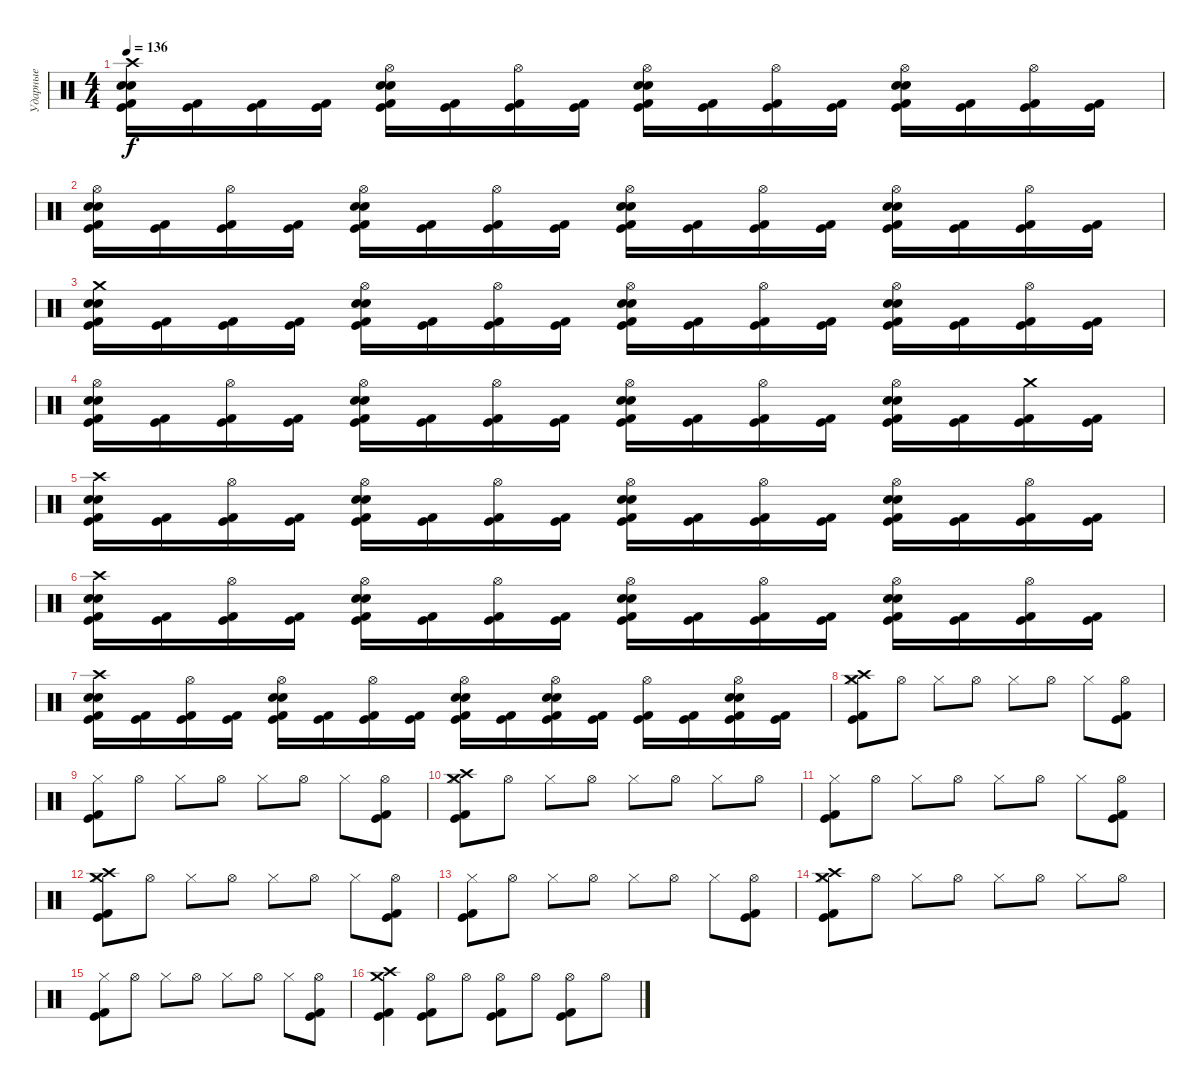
\track ("Ударные" "Ударные") {instrument percussion}
\staff {score}
\articulation defaults
\ts (4 4)
\tempo 136
\clef neutral
\ks c
("Crash high (hit)" "Kick (hit)" "Kick (hit) 2" "Snare (hit) 2" "Electric Snare (hit)").16{dy f} ("Kick (hit)" "Kick (hit) 2").16 ("Kick (hit)" "Kick (hit) 2").16 ("Kick (hit)" "Kick (hit) 2").16 ("Hi-Hat (open)" "Kick (hit)" "Kick (hit) 2" "Snare (hit) 2" "Electric Snare (hit)").16 ("Kick (hit)" "Kick (hit) 2").16 ("Hi-Hat (open)" "Kick (hit)" "Kick (hit) 2").16 ("Kick (hit)" "Kick (hit) 2").16 ("Hi-Hat (open)" "Kick (hit)" "Kick (hit) 2" "Snare (hit) 2" "Electric Snare (hit)").16 ("Kick (hit)" "Kick (hit) 2").16 ("Hi-Hat (open)" "Kick (hit)" "Kick (hit) 2").16 ("Kick (hit)" "Kick (hit) 2").16 ("Hi-Hat (open)" "Kick (hit)" "Kick (hit) 2" "Snare (hit) 2" "Electric Snare (hit)").16 ("Kick (hit)" "Kick (hit) 2").16 ("Hi-Hat (open)" "Kick (hit)" "Kick (hit) 2").16 ("Kick (hit)" "Kick (hit) 2").16 |
("Hi-Hat (open)" "Kick (hit)" "Kick (hit) 2" "Snare (hit) 2" "Electric Snare (hit)").16 ("Kick (hit)" "Kick (hit) 2").16 ("Hi-Hat (open)" "Kick (hit)" "Kick (hit) 2").16 ("Kick (hit)" "Kick (hit) 2").16 ("Hi-Hat (open)" "Kick (hit)" "Kick (hit) 2" "Snare (hit) 2" "Electric Snare (hit)").16 ("Kick (hit)" "Kick (hit) 2").16 ("Hi-Hat (open)" "Kick (hit)" "Kick (hit) 2").16 ("Kick (hit)" "Kick (hit) 2").16 ("Hi-Hat (open)" "Kick (hit)" "Kick (hit) 2" "Snare (hit) 2" "Electric Snare (hit)").16 ("Kick (hit)" "Kick (hit) 2").16 ("Hi-Hat (open)" "Kick (hit)" "Kick (hit) 2").16 ("Kick (hit)" "Kick (hit) 2").16 ("Hi-Hat (open)" "Kick (hit)" "Kick (hit) 2" "Snare (hit) 2" "Electric Snare (hit)").16 ("Kick (hit)" "Kick (hit) 2").16 ("Hi-Hat (open)" "Kick (hit)" "Kick (hit) 2").16 ("Kick (hit)" "Kick (hit) 2").16 |
("Crash medium (hit)" "Kick (hit)" "Kick (hit) 2" "Snare (hit) 2" "Electric Snare (hit)").16 ("Kick (hit)" "Kick (hit) 2").16 ("Kick (hit)" "Kick (hit) 2").16 ("Kick (hit)" "Kick (hit) 2").16 ("Hi-Hat (open)" "Kick (hit)" "Kick (hit) 2" "Snare (hit) 2" "Electric Snare (hit)").16 ("Kick (hit)" "Kick (hit) 2").16 ("Hi-Hat (open)" "Kick (hit)" "Kick (hit) 2").16 ("Kick (hit)" "Kick (hit) 2").16 ("Hi-Hat (open)" "Kick (hit)" "Kick (hit) 2" "Snare (hit) 2" "Electric Snare (hit)").16 ("Kick (hit)" "Kick (hit) 2").16 ("Hi-Hat (open)" "Kick (hit)" "Kick (hit) 2").16 ("Kick (hit)" "Kick (hit) 2").16 ("Hi-Hat (open)" "Kick (hit)" "Kick (hit) 2" "Snare (hit) 2" "Electric Snare (hit)").16 ("Kick (hit)" "Kick (hit) 2").16 ("Hi-Hat (open)" "Kick (hit)" "Kick (hit) 2").16 ("Kick (hit)" "Kick (hit) 2").16 |
("Hi-Hat (open)" "Kick (hit)" "Kick (hit) 2" "Snare (hit) 2" "Electric Snare (hit)").16 ("Kick (hit)" "Kick (hit) 2").16 ("Hi-Hat (open)" "Kick (hit)" "Kick (hit) 2").16 ("Kick (hit)" "Kick (hit) 2").16 ("Hi-Hat (open)" "Kick (hit)" "Kick (hit) 2" "Snare (hit) 2" "Electric Snare (hit)").16 ("Kick (hit)" "Kick (hit) 2").16 ("Hi-Hat (open)" "Kick (hit)" "Kick (hit) 2").16 ("Kick (hit)" "Kick (hit) 2").16 ("Hi-Hat (open)" "Kick (hit)" "Kick (hit) 2" "Snare (hit) 2" "Electric Snare (hit)").16 ("Kick (hit)" "Kick (hit) 2").16 ("Hi-Hat (open)" "Kick (hit)" "Kick (hit) 2").16 ("Kick (hit)" "Kick (hit) 2").16 ("Hi-Hat (open)" "Kick (hit)" "Kick (hit) 2" "Snare (hit) 2" "Electric Snare (hit)").16 ("Kick (hit)" "Kick (hit) 2").16 ("Crash medium (hit)" "Kick (hit)" "Kick (hit) 2").16 ("Kick (hit)" "Kick (hit) 2").16 |
("Crash high (hit)" "Kick (hit)" "Kick (hit) 2" "Snare (hit) 2" "Electric Snare (hit)").16 ("Kick (hit)" "Kick (hit) 2").16 ("Hi-Hat (open)" "Kick (hit)" "Kick (hit) 2").16 ("Kick (hit)" "Kick (hit) 2").16 ("Hi-Hat (open)" "Kick (hit)" "Kick (hit) 2" "Snare (hit) 2" "Electric Snare (hit)").16 ("Kick (hit)" "Kick (hit) 2").16 ("Hi-Hat (open)" "Kick (hit)" "Kick (hit) 2").16 ("Kick (hit)" "Kick (hit) 2").16 ("Hi-Hat (open)" "Kick (hit)" "Kick (hit) 2" "Snare (hit) 2" "Electric Snare (hit)").16 ("Kick (hit)" "Kick (hit) 2").16 ("Hi-Hat (open)" "Kick (hit)" "Kick (hit) 2").16 ("Kick (hit)" "Kick (hit) 2").16 ("Hi-Hat (open)" "Kick (hit)" "Kick (hit) 2" "Snare (hit) 2" "Electric Snare (hit)").16 ("Kick (hit)" "Kick (hit) 2").16 ("Hi-Hat (open)" "Kick (hit)" "Kick (hit) 2").16 ("Kick (hit)" "Kick (hit) 2").16 |
("Crash high (hit)" "Kick (hit)" "Kick (hit) 2" "Snare (hit) 2" "Electric Snare (hit)").16 ("Kick (hit)" "Kick (hit) 2").16 ("Hi-Hat (open)" "Kick (hit)" "Kick (hit) 2").16 ("Kick (hit)" "Kick (hit) 2").16 ("Hi-Hat (open)" "Kick (hit)" "Kick (hit) 2" "Snare (hit) 2" "Electric Snare (hit)").16 ("Kick (hit)" "Kick (hit) 2").16 ("Hi-Hat (open)" "Kick (hit)" "Kick (hit) 2").16 ("Kick (hit)" "Kick (hit) 2").16 ("Hi-Hat (open)" "Kick (hit)" "Kick (hit) 2" "Snare (hit) 2" "Electric Snare (hit)").16 ("Kick (hit)" "Kick (hit) 2").16 ("Hi-Hat (open)" "Kick (hit)" "Kick (hit) 2").16 ("Kick (hit)" "Kick (hit) 2").16 ("Hi-Hat (open)" "Kick (hit)" "Kick (hit) 2" "Snare (hit) 2" "Electric Snare (hit)").16 ("Kick (hit)" "Kick (hit) 2").16 ("Hi-Hat (open)" "Kick (hit)" "Kick (hit) 2").16 ("Kick (hit)" "Kick (hit) 2").16 |
("Crash high (hit)" "Kick (hit)" "Kick (hit) 2" "Snare (hit) 2" "Electric Snare (hit)").16 ("Kick (hit)" "Kick (hit) 2").16 ("Hi-Hat (open)" "Kick (hit)" "Kick (hit) 2").16 ("Kick (hit)" "Kick (hit) 2").16 ("Hi-Hat (open)" "Kick (hit)" "Kick (hit) 2" "Snare (hit) 2" "Electric Snare (hit)").16 ("Kick (hit)" "Kick (hit) 2").16 ("Hi-Hat (open)" "Kick (hit)" "Kick (hit) 2").16 ("Kick (hit)" "Kick (hit) 2").16 ("Hi-Hat (open)" "Kick (hit)" "Kick (hit) 2" "Snare (hit) 2" "Electric Snare (hit)").16 ("Kick (hit)" "Kick (hit) 2").16 ("Hi-Hat (open)" "Kick (hit)" "Kick (hit) 2" "Snare (hit) 2" "Electric Snare (hit)").16 ("Kick (hit)" "Kick (hit) 2").16 ("Hi-Hat (open)" "Kick (hit)" "Kick (hit) 2").16 ("Kick (hit)" "Kick (hit) 2").16 ("Hi-Hat (open)" "Kick (hit)" "Kick (hit) 2" "Snare (hit) 2" "Electric Snare (hit)").16 ("Kick (hit)" "Kick (hit) 2").16 |
("Kick (hit)" "Kick (hit) 2" "Hi-Hat (closed)" "Crash high (hit)" "Crash medium (hit)").8 "Hi-Hat (open)".8 "Hi-Hat (closed)".8 "Hi-Hat (open)".8 "Hi-Hat (closed)".8 "Hi-Hat (open)".8 "Hi-Hat (closed)".8 ("Kick (hit)" "Kick (hit) 2" "Hi-Hat (open)").8 |
("Kick (hit)" "Kick (hit) 2" "Hi-Hat (closed)").8 "Hi-Hat (open)".8 "Hi-Hat (closed)".8 "Hi-Hat (open)".8 "Hi-Hat (closed)".8 "Hi-Hat (open)".8 "Hi-Hat (closed)".8 ("Kick (hit)" "Kick (hit) 2" "Hi-Hat (open)").8 |
("Kick (hit)" "Kick (hit) 2" "Hi-Hat (closed)" "Crash high (hit)" "Crash medium (hit)").8 "Hi-Hat (open)".8 "Hi-Hat (closed)".8 "Hi-Hat (open)".8 "Hi-Hat (closed)".8 "Hi-Hat (open)".8 "Hi-Hat (closed)".8 "Hi-Hat (open)".8 |
("Kick (hit)" "Kick (hit) 2" "Hi-Hat (closed)").8 "Hi-Hat (open)".8 "Hi-Hat (closed)".8 "Hi-Hat (open)".8 "Hi-Hat (closed)".8 "Hi-Hat (open)".8 "Hi-Hat (closed)".8 ("Kick (hit)" "Kick (hit) 2" "Hi-Hat (open)").8 |
("Kick (hit)" "Kick (hit) 2" "Hi-Hat (closed)" "Crash high (hit)" "Crash medium (hit)").8 "Hi-Hat (open)".8 "Hi-Hat (closed)".8 "Hi-Hat (open)".8 "Hi-Hat (closed)".8 "Hi-Hat (open)".8 "Hi-Hat (closed)".8 ("Kick (hit)" "Kick (hit) 2" "Hi-Hat (open)").8 |
("Kick (hit)" "Kick (hit) 2" "Hi-Hat (closed)").8 "Hi-Hat (open)".8 "Hi-Hat (closed)".8 "Hi-Hat (open)".8 "Hi-Hat (closed)".8 "Hi-Hat (open)".8 "Hi-Hat (closed)".8 ("Kick (hit)" "Kick (hit) 2" "Hi-Hat (open)").8 |
("Kick (hit)" "Kick (hit) 2" "Hi-Hat (closed)" "Crash high (hit)" "Crash medium (hit)").8 "Hi-Hat (open)".8 "Hi-Hat (closed)".8 "Hi-Hat (open)".8 "Hi-Hat (closed)".8 "Hi-Hat (open)".8 "Hi-Hat (closed)".8 "Hi-Hat (open)".8 |
("Kick (hit)" "Kick (hit) 2" "Hi-Hat (closed)").8 "Hi-Hat (open)".8 "Hi-Hat (closed)".8 "Hi-Hat (open)".8 "Hi-Hat (closed)".8 "Hi-Hat (open)".8 "Hi-Hat (closed)".8 ("Kick (hit)" "Kick (hit) 2" "Hi-Hat (open)").8 |
("Crash high (hit)" "Kick (hit)" "Kick (hit) 2" "Crash medium (hit)").4 ("Hi-Hat (open)" "Kick (hit)" "Kick (hit) 2").8 "Hi-Hat (open)".8 ("Hi-Hat (open)" "Kick (hit)" "Kick (hit) 2").8 "Hi-Hat (open)".8 ("Hi-Hat (open)" "Kick (hit)" "Kick (hit) 2").8 "Hi-Hat (open)".8
